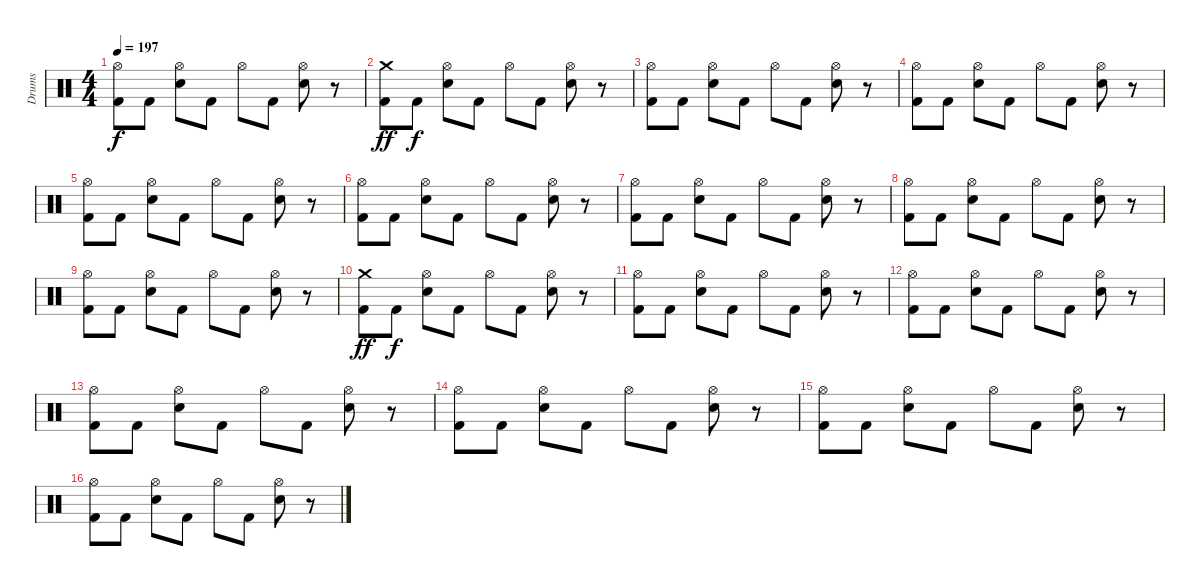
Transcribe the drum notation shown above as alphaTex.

\track ("Drums" "Drums") {instrument percussion}
\staff {score}
\articulation defaults
\ts (4 4)
\tempo 197
\clef neutral
\ks c
("Hi-Hat (open)" "Kick (hit) 2").8{dy f} "Kick (hit) 2".8 ("Hi-Hat (open)" "Snare (hit) 2").8 "Kick (hit) 2".8 "Hi-Hat (open)".8 "Kick (hit) 2".8 ("Hi-Hat (open)" "Snare (hit) 2").8 r.8 |
("Crash medium (hit)" "Kick (hit) 2").8{dy ff} "Kick (hit) 2".8{dy f} ("Hi-Hat (open)" "Snare (hit) 2").8 "Kick (hit) 2".8 "Hi-Hat (open)".8 "Kick (hit) 2".8 ("Hi-Hat (open)" "Snare (hit) 2").8 r.8 |
("Hi-Hat (open)" "Kick (hit) 2").8 "Kick (hit) 2".8 ("Hi-Hat (open)" "Snare (hit) 2").8 "Kick (hit) 2".8 "Hi-Hat (open)".8 "Kick (hit) 2".8 ("Hi-Hat (open)" "Snare (hit) 2").8 r.8 |
("Hi-Hat (open)" "Kick (hit) 2").8 "Kick (hit) 2".8 ("Hi-Hat (open)" "Snare (hit) 2").8 "Kick (hit) 2".8 "Hi-Hat (open)".8 "Kick (hit) 2".8 ("Hi-Hat (open)" "Snare (hit) 2").8 r.8 |
("Hi-Hat (open)" "Kick (hit) 2").8 "Kick (hit) 2".8 ("Hi-Hat (open)" "Snare (hit) 2").8 "Kick (hit) 2".8 "Hi-Hat (open)".8 "Kick (hit) 2".8 ("Hi-Hat (open)" "Snare (hit) 2").8 r.8 |
("Hi-Hat (open)" "Kick (hit) 2").8 "Kick (hit) 2".8 ("Hi-Hat (open)" "Snare (hit) 2").8 "Kick (hit) 2".8 "Hi-Hat (open)".8 "Kick (hit) 2".8 ("Hi-Hat (open)" "Snare (hit) 2").8 r.8 |
("Hi-Hat (open)" "Kick (hit) 2").8 "Kick (hit) 2".8 ("Hi-Hat (open)" "Snare (hit) 2").8 "Kick (hit) 2".8 "Hi-Hat (open)".8 "Kick (hit) 2".8 ("Hi-Hat (open)" "Snare (hit) 2").8 r.8 |
("Hi-Hat (open)" "Kick (hit) 2").8 "Kick (hit) 2".8 ("Hi-Hat (open)" "Snare (hit) 2").8 "Kick (hit) 2".8 "Hi-Hat (open)".8 "Kick (hit) 2".8 ("Hi-Hat (open)" "Snare (hit) 2").8 r.8 |
("Hi-Hat (open)" "Kick (hit) 2").8 "Kick (hit) 2".8 ("Hi-Hat (open)" "Snare (hit) 2").8 "Kick (hit) 2".8 "Hi-Hat (open)".8 "Kick (hit) 2".8 ("Hi-Hat (open)" "Snare (hit) 2").8 r.8 |
("Crash medium (hit)" "Kick (hit) 2").8{dy ff} "Kick (hit) 2".8{dy f} ("Hi-Hat (open)" "Snare (hit) 2").8 "Kick (hit) 2".8 "Hi-Hat (open)".8 "Kick (hit) 2".8 ("Hi-Hat (open)" "Snare (hit) 2").8 r.8 |
("Hi-Hat (open)" "Kick (hit) 2").8 "Kick (hit) 2".8 ("Hi-Hat (open)" "Snare (hit) 2").8 "Kick (hit) 2".8 "Hi-Hat (open)".8 "Kick (hit) 2".8 ("Hi-Hat (open)" "Snare (hit) 2").8 r.8 |
("Hi-Hat (open)" "Kick (hit) 2").8 "Kick (hit) 2".8 ("Hi-Hat (open)" "Snare (hit) 2").8 "Kick (hit) 2".8 "Hi-Hat (open)".8 "Kick (hit) 2".8 ("Hi-Hat (open)" "Snare (hit) 2").8 r.8 |
("Hi-Hat (open)" "Kick (hit) 2").8 "Kick (hit) 2".8 ("Hi-Hat (open)" "Snare (hit) 2").8 "Kick (hit) 2".8 "Hi-Hat (open)".8 "Kick (hit) 2".8 ("Hi-Hat (open)" "Snare (hit) 2").8 r.8 |
("Hi-Hat (open)" "Kick (hit) 2").8 "Kick (hit) 2".8 ("Hi-Hat (open)" "Snare (hit) 2").8 "Kick (hit) 2".8 "Hi-Hat (open)".8 "Kick (hit) 2".8 ("Hi-Hat (open)" "Snare (hit) 2").8 r.8 |
("Hi-Hat (open)" "Kick (hit) 2").8 "Kick (hit) 2".8 ("Hi-Hat (open)" "Snare (hit) 2").8 "Kick (hit) 2".8 "Hi-Hat (open)".8 "Kick (hit) 2".8 ("Hi-Hat (open)" "Snare (hit) 2").8 r.8 |
("Hi-Hat (open)" "Kick (hit) 2").8 "Kick (hit) 2".8 ("Hi-Hat (open)" "Snare (hit) 2").8 "Kick (hit) 2".8 "Hi-Hat (open)".8 "Kick (hit) 2".8 ("Hi-Hat (open)" "Snare (hit) 2").8 r.8
